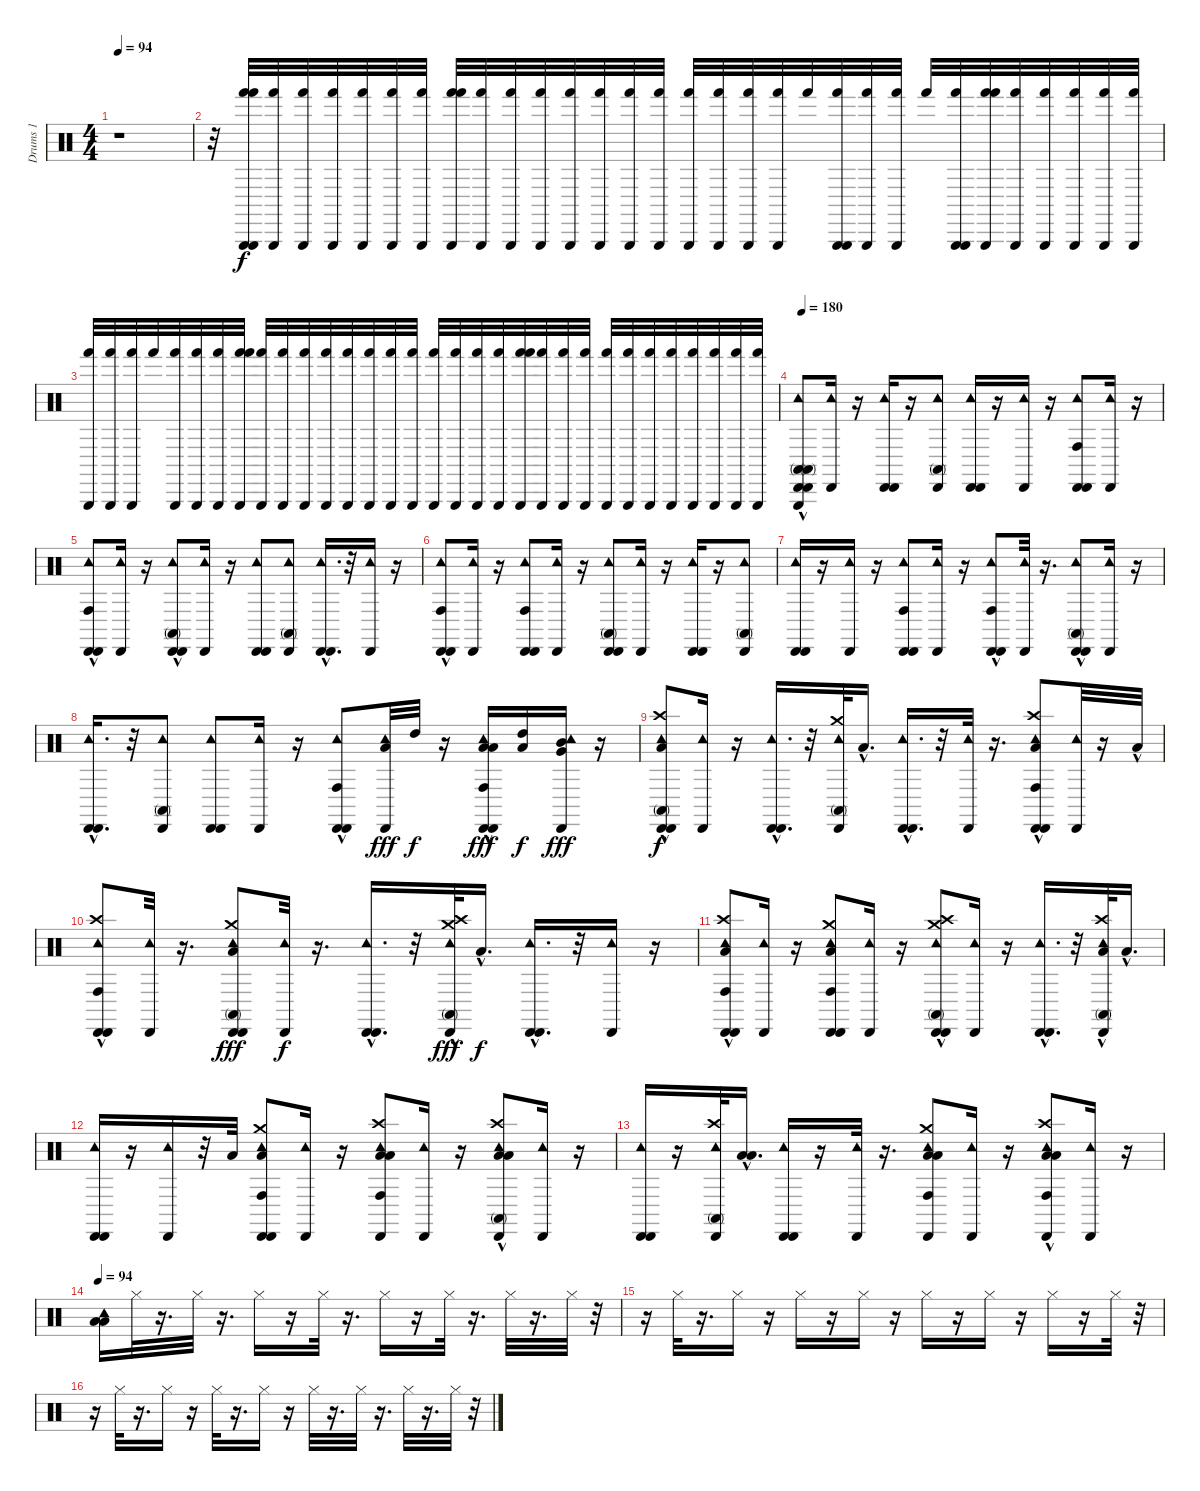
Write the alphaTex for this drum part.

\track ("Drums 1 " "Drums 1 ") {instrument percussion}
\staff {score}
\articulation defaults
\ts (4 4)
\tempo 94
\clef neutral
\ks c
r.1{dy f} |
r.32 ("Hand (hit)" "Triangle (hit)" "Triangle (hit)" "Hand (hit)").32{balance 12} ("Hand (hit)" "Triangle (hit)").32 ("Hand (hit)" "Triangle (hit)").32 ("Hand (hit)" "Triangle (hit)").32 ("Hand (hit)" "Triangle (hit)").32 ("Hand (hit)" "Triangle (hit)").32 ("Hand (hit)" "Triangle (hit)").32 ("Hand (hit)" "Hand (hit)" "Triangle (hit)").32 ("Hand (hit)" "Triangle (hit)").32 ("Hand (hit)" "Triangle (hit)").32 ("Hand (hit)" "Triangle (hit)").32 ("Hand (hit)" "Triangle (hit)").32 ("Hand (hit)" "Triangle (hit)").32 ("Hand (hit)" "Triangle (hit)").32 ("Hand (hit)" "Triangle (hit)").32 ("Hand (hit)" "Triangle (hit)").32 ("Hand (hit)" "Triangle (hit)").32 ("Hand (hit)" "Triangle (hit)").32 ("Hand (hit)" "Triangle (hit)").32 "Hand (hit)".32 ("Triangle (hit)" "Hand (hit)" "Triangle (hit)").32 ("Hand (hit)" "Triangle (hit)").32 ("Hand (hit)" "Triangle (hit)").32 "Hand (hit)".32 ("Triangle (hit)" "Hand (hit)" "Triangle (hit)").32 ("Hand (hit)" "Triangle (hit)" "Hand (hit)").32 ("Triangle (hit)" "Hand (hit)").32 ("Hand (hit)" "Triangle (hit)").32 ("Hand (hit)" "Triangle (hit)").32 ("Hand (hit)" "Triangle (hit)").32 ("Hand (hit)" "Triangle (hit)").32 |
("Hand (hit)" "Triangle (hit)").32 ("Hand (hit)" "Triangle (hit)").32 ("Hand (hit)" "Triangle (hit)").32 "Hand (hit)".32 ("Triangle (hit)" "Hand (hit)").32 ("Triangle (hit)" "Hand (hit)").32 ("Triangle (hit)" "Hand (hit)").32 ("Triangle (hit)" "Hand (hit)" "Hand (hit)").32 ("Triangle (hit)" "Hand (hit)").32 ("Triangle (hit)" "Hand (hit)").32 ("Triangle (hit)" "Hand (hit)").32 ("Triangle (hit)" "Hand (hit)").32 ("Triangle (hit)" "Hand (hit)").32 ("Triangle (hit)" "Hand (hit)").32 ("Triangle (hit)" "Hand (hit)").32 ("Triangle (hit)" "Hand (hit)").32 ("Triangle (hit)" "Hand (hit)").32 ("Triangle (hit)" "Hand (hit)").32 ("Triangle (hit)" "Hand (hit)").32 ("Triangle (hit)" "Hand (hit)").32 ("Hand (hit)" "Triangle (hit)" "Hand (hit)").32 ("Triangle (hit)" "Hand (hit)").32 ("Triangle (hit)" "Hand (hit)").32 ("Triangle (hit)" "Hand (hit)").32 ("Triangle (hit)" "Hand (hit)").32 ("Triangle (hit)" "Hand (hit)").32 ("Triangle (hit)" "Hand (hit)").32 ("Triangle (hit)" "Hand (hit)").32 ("Triangle (hit)" "Hand (hit)").32 ("Triangle (hit)" "Hand (hit)").32 ("Triangle (hit)" "Hand (hit)").32 ("Triangle (hit)" "Hand (hit)").32 |
\tempo 180
("Triangle (hit)" "Conga high (mute)" "Conga high (mute)" "Cabasa (hit)"{hac} "Cabasa (hit)"{hac} "Tambourine (hit)").8 ("Cabasa (hit)" "Tambourine (hit)").16{balance 8} r.16 ("Cabasa (hit)" "Tambourine (hit)" "Cabasa (hit)").16 r.16 ("Cabasa (hit)" "Tambourine (hit)" "Conga high (mute)").8 ("Tambourine (hit)" "Cabasa (hit)" "Cabasa (hit)").16 r.16 ("Cabasa (hit)" "Tambourine (hit)").16 r.16 ("Cabasa (hit)" "Tambourine (hit)" "Cabasa (hit)" "Conga high (hit)").8 ("Cabasa (hit)" "Tambourine (hit)").16 r.16 |
("Tambourine (hit)" "Cabasa (hit)"{hac} "Conga high (hit)" "Cabasa (hit)"{hac}).8 ("Tambourine (hit)" "Cabasa (hit)").16 r.16 ("Tambourine (hit)" "Cabasa (hit)"{hac} "Conga high (mute)" "Cabasa (hit)"{hac}).8 ("Cabasa (hit)" "Tambourine (hit)").16 r.16 ("Cabasa (hit)" "Tambourine (hit)" "Cabasa (hit)").8 ("Cabasa (hit)" "Tambourine (hit)" "Conga high (mute)").8 ("Cabasa (hit)"{hac} "Tambourine (hit)" "Cabasa (hit)"{hac}).16{d} r.32 ("Cabasa (hit)" "Tambourine (hit)").16 r.16 |
("Cabasa (hit)"{hac} "Cabasa (hit)"{hac} "Tambourine (hit)" "Conga high (hit)").8 ("Cabasa (hit)" "Tambourine (hit)").16 r.16 ("Cabasa (hit)" "Tambourine (hit)" "Conga high (hit)" "Cabasa (hit)").8 ("Cabasa (hit)" "Tambourine (hit)").16 r.16 ("Cabasa (hit)" "Conga high (mute)" "Cabasa (hit)" "Tambourine (hit)").8 ("Cabasa (hit)" "Tambourine (hit)").16 r.16 ("Cabasa (hit)" "Tambourine (hit)" "Cabasa (hit)").16 r.16 ("Cabasa (hit)" "Tambourine (hit)" "Conga high (mute)").8 |
("Cabasa (hit)" "Tambourine (hit)" "Cabasa (hit)").16 r.16 ("Tambourine (hit)" "Cabasa (hit)").16 r.16 ("Cabasa (hit)" "Tambourine (hit)" "Cabasa (hit)" "Conga high (hit)").8 ("Cabasa (hit)" "Tambourine (hit)").16 r.16 ("Cabasa (hit)"{hac} "Cabasa (hit)"{hac} "Tambourine (hit)" "Conga high (hit)").8 ("Cabasa (hit)" "Tambourine (hit)").32 r.16{d} ("Cabasa (hit)"{hac} "Cabasa (hit)"{hac} "Tambourine (hit)" "Conga high (mute)").8 ("Cabasa (hit)" "Tambourine (hit)").16 r.16 |
("Tambourine (hit)" "Cabasa (hit)"{hac} "Cabasa (hit)"{hac}).16{d} r.32 ("Tambourine (hit)" "Cabasa (hit)" "Conga high (mute)").8 ("Cabasa (hit)" "Tambourine (hit)" "Cabasa (hit)").8 ("Cabasa (hit)" "Tambourine (hit)").16 r.16 ("Cabasa (hit)"{hac} "Cabasa (hit)"{hac} "Tambourine (hit)" "Conga high (hit)").8 ("Low Tom (hit)" "Cabasa (hit)" "Tambourine (hit)").32{dy fff} "High Tom (hit)".32{dy f} r.16 ("Cabasa (hit)"{hac} "Low Tom (hit)" "Cabasa (hit)"{hac} "Conga high (hit)" "Tambourine (hit)" "Low Tom (hit)").16{dy fff} ("Low Tom (hit)" "High Tom (hit)").16{dy f} ("Very Low Tom (hit)" "Tambourine (hit)" "Cabasa (hit)" "Mid Tom (hit)").16{dy fff} r.16 |
("Low Floor Tom (hit)" "Tambourine (hit)" "Cabasa (hit)"{hac} "Cabasa (hit)"{hac} "Crash high (hit)" "Conga high (mute)").8{dy f} ("Cabasa (hit)" "Tambourine (hit)").16 r.16 ("Cabasa (hit)"{hac} "Tambourine (hit)" "Cabasa (hit)"{hac}).16{d} r.32 ("Tambourine (hit)" "Cabasa (hit)" "Crash medium (hit)" "Conga high (mute)").32 "Low Floor Tom (hit)"{hac}.16{d} ("Cabasa (hit)"{hac} "Tambourine (hit)" "Cabasa (hit)"{hac}).16{d} r.32 ("Cabasa (hit)" "Tambourine (hit)").32 r.16{d} ("Low Floor Tom (hit)" "Tambourine (hit)" "Conga high (hit)" "Cabasa (hit)"{hac} "Cabasa (hit)"{hac} "Crash high (hit)").8 ("Tambourine (hit)" "Cabasa (hit)").32 r.16 "Low Floor Tom (hit)"{hac}.32 |
("Cabasa (hit)"{hac} "Tambourine (hit)" "Conga high (hit)" "Crash high (hit)"{hac} "Cabasa (hit)"{hac}).8 ("Tambourine (hit)" "Cabasa (hit)").32 r.16{d} ("Low Floor Tom (hit)" "Conga high (mute)" "Tambourine (hit)" "Crash medium (hit)" "Cabasa (hit)" "Cabasa (hit)").8{dy fff} ("Tambourine (hit)" "Cabasa (hit)").32{dy f} r.16{d} ("Cabasa (hit)"{hac} "Tambourine (hit)" "Cabasa (hit)"{hac}).16{d} r.32 ("Conga high (mute)" "Tambourine (hit)" "Crash high (hit)"{hac} "Cabasa (hit)" "Crash medium (hit)").32{dy fff} "Low Floor Tom (hit)"{hac}.16{d dy f} ("Cabasa (hit)"{hac} "Tambourine (hit)" "Cabasa (hit)"{hac}).16{d} r.32 ("Tambourine (hit)" "Cabasa (hit)").16 r.16 |
("Low Floor Tom (hit)"{hac} "Conga high (hit)" "Cabasa (hit)" "Tambourine (hit)" "Crash high (hit)" "Cabasa (hit)").8 ("Tambourine (hit)" "Cabasa (hit)").16 r.16 ("Crash medium (hit)" "Cabasa (hit)" "Conga high (hit)" "Tambourine (hit)" "Cabasa (hit)" "Low Floor Tom (hit)").8 ("Tambourine (hit)" "Cabasa (hit)").16 r.16 ("Cabasa (hit)"{hac} "Conga high (mute)" "Crash high (hit)" "Crash medium (hit)" "Cabasa (hit)"{hac} "Tambourine (hit)").8 ("Tambourine (hit)" "Cabasa (hit)").16 r.16 ("Tambourine (hit)" "Cabasa (hit)"{hac} "Cabasa (hit)"{hac}).16{d} r.32 ("Tambourine (hit)" "Conga high (mute)" "Crash high (hit)" "Cabasa (hit)" "Low Floor Tom (hit)"{hac}).32 "Low Tom (hit)"{hac}.16{d} |
("Tambourine (hit)" "Cabasa (hit)" "Cabasa (hit)").16 r.16 ("Tambourine (hit)" "Cabasa (hit)").16 r.32 "Low Tom (hit)".32 ("Low Floor Tom (hit)" "Cabasa (hit)" "Conga high (hit)" "Crash medium (hit)" "Tambourine (hit)" "Cabasa (hit)").8 ("Tambourine (hit)" "Cabasa (hit)").16 r.16 ("Low Floor Tom (hit)" "Low Tom (hit)" "Crash high (hit)" "Tambourine (hit)" "Cabasa (hit)" "Conga high (hit)").8 ("Tambourine (hit)" "Cabasa (hit)").16 r.16 ("Low Floor Tom (hit)" "Low Tom (hit)" "Tambourine (hit)" "Cabasa (hit)" "Crash high (hit)"{hac} "Conga high (mute)").8 ("Tambourine (hit)" "Cabasa (hit)").16 r.16 |
("Tambourine (hit)" "Cabasa (hit)" "Cabasa (hit)").16 r.16 ("Tambourine (hit)" "Conga high (mute)" "Crash high (hit)" "Cabasa (hit)").32 ("Low Floor Tom (hit)"{hac} "Low Tom (hit)"{hac}).16{d} ("Tambourine (hit)" "Cabasa (hit)" "Cabasa (hit)").16 r.16 ("Tambourine (hit)" "Cabasa (hit)").32 r.16{d} ("Low Floor Tom (hit)" "Low Tom (hit)" "Tambourine (hit)" "Crash medium (hit)" "Conga high (hit)" "Cabasa (hit)").8 ("Tambourine (hit)" "Cabasa (hit)").16 r.16 ("Low Floor Tom (hit)"{hac} "Low Tom (hit)"{hac} "Crash high (hit)" "Tambourine (hit)" "Conga high (hit)" "Cabasa (hit)").8 ("Tambourine (hit)" "Cabasa (hit)").16 r.16 |
\tempo 94
("Low Floor Tom (hit)" "Low Tom (hit)" "Tambourine (hit)").16 "Hi-Hat (closed)".32 r.16{d} "Hi-Hat (closed)".32 r.16{d} "Hi-Hat (closed)".16 r.16 "Hi-Hat (closed)".32 r.16{d} "Hi-Hat (closed)".16 r.16 "Hi-Hat (closed)".32 r.16{d} "Hi-Hat (closed)".32 r.16{d} "Hi-Hat (closed)".32 r.32 |
r.16 "Hi-Hat (closed)".32 r.16{d} "Hi-Hat (closed)".16 r.16 "Hi-Hat (closed)".16 r.16 "Hi-Hat (closed)".16 r.16 "Hi-Hat (closed)".16 r.16 "Hi-Hat (closed)".16 r.16 "Hi-Hat (closed)".16 r.16 "Hi-Hat (closed)".32 r.32 |
r.16 "Hi-Hat (closed)".32 r.16{d} "Hi-Hat (closed)".16 r.16 "Hi-Hat (closed)".32 r.16{d} "Hi-Hat (closed)".16 r.16 "Hi-Hat (closed)".32 r.16{d} "Hi-Hat (closed)".32 r.16{d} "Hi-Hat (closed)".32 r.16{d} "Hi-Hat (closed)".32 r.32
